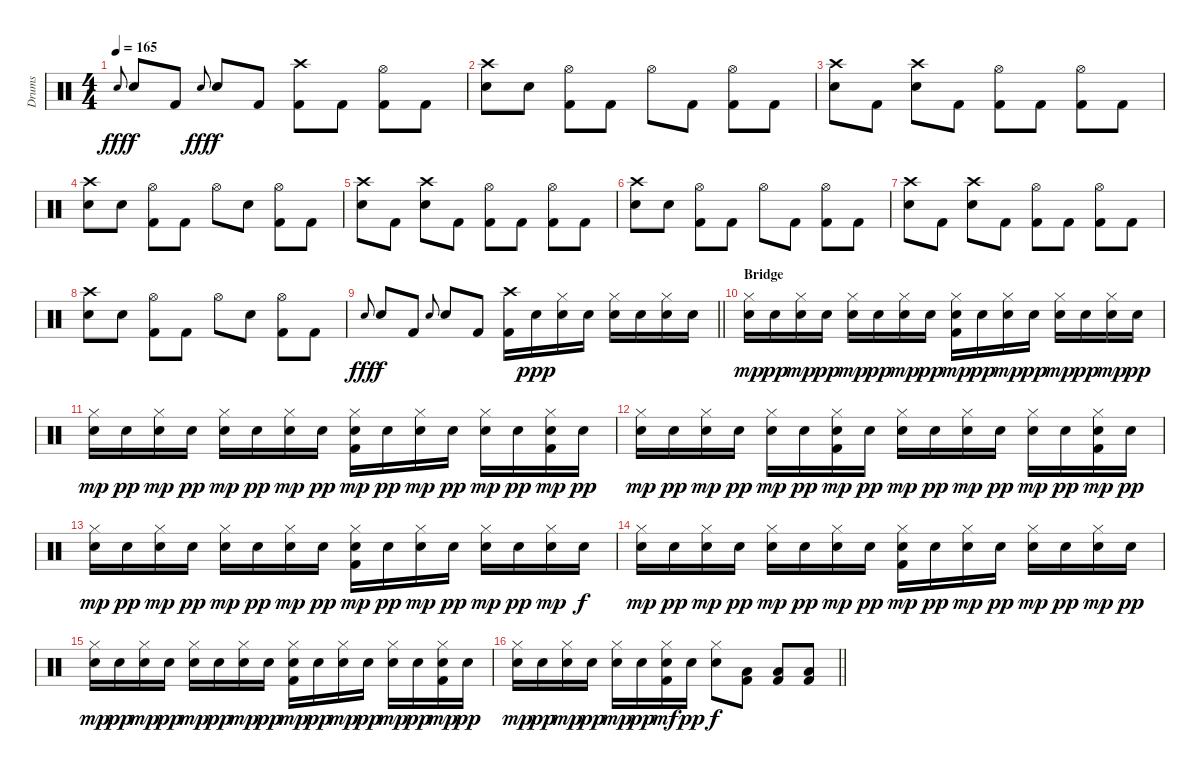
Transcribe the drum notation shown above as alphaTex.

\track ("Drums" "Drums") {instrument percussion}
\staff {score}
\articulation defaults
\ts (4 4)
\tempo 165
\clef neutral
\ks c "Electric Snare (hit)".8{gr onbeat dy fff} "Electric Snare (hit)".8{dy f} "Kick (hit) 2".8 "Electric Snare (hit)".8{gr onbeat dy fff} "Electric Snare (hit)".8{dy f} "Kick (hit) 2".8
("Crash high (hit)" "Kick (hit) 2").8 "Kick (hit) 2".8 ("Hi-Hat (open)" "Kick (hit) 2").8 "Kick (hit) 2".8 |
("Crash high (hit)" "Electric Snare (hit)").8 "Electric Snare (hit)".8 ("Hi-Hat (open)" "Kick (hit) 2").8 "Kick (hit) 2".8 "Hi-Hat (open)".8 "Kick (hit) 2".8 ("Hi-Hat (open)" "Kick (hit) 2").8 "Kick (hit) 2".8 |
("Crash high (hit)" "Electric Snare (hit)").8 "Kick (hit) 2".8 ("Crash high (hit)" "Electric Snare (hit)").8 "Kick (hit) 2".8 ("Hi-Hat (open)" "Kick (hit) 2").8 "Kick (hit) 2".8 ("Hi-Hat (open)" "Kick (hit) 2").8 "Kick (hit) 2".8 |
("Crash high (hit)" "Electric Snare (hit)").8 "Electric Snare (hit)".8 ("Hi-Hat (open)" "Kick (hit) 2").8 "Kick (hit) 2".8 "Hi-Hat (open)".8 "Electric Snare (hit)".8 ("Hi-Hat (open)" "Kick (hit) 2").8 "Kick (hit) 2".8 |
("Crash high (hit)" "Electric Snare (hit)").8 "Kick (hit) 2".8 ("Crash high (hit)" "Electric Snare (hit)").8 "Kick (hit) 2".8 ("Hi-Hat (open)" "Kick (hit) 2").8 "Kick (hit) 2".8 ("Hi-Hat (open)" "Kick (hit) 2").8 "Kick (hit) 2".8 |
("Crash high (hit)" "Electric Snare (hit)").8 "Electric Snare (hit)".8 ("Hi-Hat (open)" "Kick (hit) 2").8 "Kick (hit) 2".8 "Hi-Hat (open)".8 "Kick (hit) 2".8 ("Hi-Hat (open)" "Kick (hit) 2").8 "Kick (hit) 2".8 |
("Crash high (hit)" "Electric Snare (hit)").8 "Kick (hit) 2".8 ("Crash high (hit)" "Electric Snare (hit)").8 "Kick (hit) 2".8 ("Hi-Hat (open)" "Kick (hit) 2").8 "Kick (hit) 2".8 ("Hi-Hat (open)" "Kick (hit) 2").8 "Kick (hit) 2".8 |
("Crash high (hit)" "Electric Snare (hit)").8 "Electric Snare (hit)".8 ("Hi-Hat (open)" "Kick (hit) 2").8 "Kick (hit) 2".8 "Hi-Hat (open)".8 "Electric Snare (hit)".8 ("Hi-Hat (open)" "Kick (hit) 2").8 "Kick (hit) 2".8 |
\barLineRight lightlight "Electric Snare (hit)".8{gr onbeat dy fff} "Electric Snare (hit)".8{dy f} "Kick (hit) 2".8 "Electric Snare (hit)".8{gr onbeat} "Electric Snare (hit)".8 "Kick (hit) 2".8
("Crash high (hit)" "Kick (hit) 2").16 "Snare (hit) 2".16{dy ppp} ("Snare (hit) 2" "Hi-Hat (closed)").16 "Snare (hit) 2".16 ("Snare (hit) 2" "Hi-Hat (closed)").16 "Snare (hit) 2".16 ("Snare (hit) 2" "Hi-Hat (closed)").16 "Snare (hit) 2".16 |
\section ("" "Bridge")
("Electric Snare (hit)" "Hi-Hat (closed)").16{dy mp} "Snare (hit) 2".16{dy pp} ("Snare (hit) 2" "Hi-Hat (closed)").16{dy mp} "Snare (hit) 2".16{dy pp} ("Snare (hit) 2" "Hi-Hat (closed)").16{dy mp} "Snare (hit) 2".16{dy pp} ("Snare (hit) 2" "Hi-Hat (closed)").16{dy mp} "Snare (hit) 2".16{dy pp} ("Kick (hit) 2" "Snare (hit) 2" "Hi-Hat (closed)").16{dy mp} "Snare (hit) 2".16{dy pp} ("Snare (hit) 2" "Hi-Hat (closed)").16{dy mp} "Snare (hit) 2".16{dy pp} ("Snare (hit) 2" "Hi-Hat (closed)").16{dy mp} "Snare (hit) 2".16{dy pp} ("Snare (hit) 2" "Hi-Hat (closed)").16{dy mp} "Snare (hit) 2".16{dy pp} |
("Electric Snare (hit)" "Hi-Hat (closed)").16{dy mp} "Snare (hit) 2".16{dy pp} ("Snare (hit) 2" "Hi-Hat (closed)").16{dy mp} "Snare (hit) 2".16{dy pp} ("Electric Snare (hit)" "Hi-Hat (closed)").16{dy mp} "Snare (hit) 2".16{dy pp} ("Snare (hit) 2" "Hi-Hat (closed)").16{dy mp} "Snare (hit) 2".16{dy pp} ("Kick (hit) 2" "Snare (hit) 2" "Hi-Hat (closed)").16{dy mp} "Snare (hit) 2".16{dy pp} ("Snare (hit) 2" "Hi-Hat (closed)").16{dy mp} "Snare (hit) 2".16{dy pp} ("Snare (hit) 2" "Hi-Hat (closed)").16{dy mp} "Snare (hit) 2".16{dy pp} ("Kick (hit) 2" "Snare (hit) 2" "Hi-Hat (closed)").16{dy mp} "Snare (hit) 2".16{dy pp} |
("Electric Snare (hit)" "Hi-Hat (closed)").16{dy mp} "Snare (hit) 2".16{dy pp} ("Electric Snare (hit)" "Hi-Hat (closed)").16{dy mp} "Snare (hit) 2".16{dy pp} ("Snare (hit) 2" "Hi-Hat (closed)").16{dy mp} "Snare (hit) 2".16{dy pp} ("Kick (hit) 2" "Snare (hit) 2" "Hi-Hat (closed)").16{dy mp} "Snare (hit) 2".16{dy pp} ("Electric Snare (hit)" "Hi-Hat (closed)").16{dy mp} "Snare (hit) 2".16{dy pp} ("Electric Snare (hit)" "Hi-Hat (closed)").16{dy mp} "Snare (hit) 2".16{dy pp} ("Snare (hit) 2" "Hi-Hat (closed)").16{dy mp} "Snare (hit) 2".16{dy pp} ("Kick (hit) 2" "Snare (hit) 2" "Hi-Hat (closed)").16{dy mp} "Snare (hit) 2".16{dy pp} |
("Electric Snare (hit)" "Hi-Hat (closed)").16{dy mp} "Snare (hit) 2".16{dy pp} ("Snare (hit) 2" "Hi-Hat (closed)").16{dy mp} "Snare (hit) 2".16{dy pp} ("Electric Snare (hit)" "Hi-Hat (closed)").16{dy mp} "Snare (hit) 2".16{dy pp} ("Electric Snare (hit)" "Hi-Hat (closed)").16{dy mp} "Snare (hit) 2".16{dy pp} ("Kick (hit) 2" "Snare (hit) 2" "Hi-Hat (closed)").16{dy mp} "Snare (hit) 2".16{dy pp} ("Snare (hit) 2" "Hi-Hat (closed)").16{dy mp} "Snare (hit) 2".16{dy pp} ("Snare (hit) 2" "Hi-Hat (closed)").16{dy mp} "Snare (hit) 2".16{dy pp} ("Electric Snare (hit)" "Hi-Hat (closed)").16{dy mp} "Electric Snare (hit)".16{dy f} |
("Electric Snare (hit)" "Hi-Hat (closed)").16{dy mp} "Snare (hit) 2".16{dy pp} ("Electric Snare (hit)" "Hi-Hat (closed)").16{dy mp} "Snare (hit) 2".16{dy pp} ("Electric Snare (hit)" "Hi-Hat (closed)").16{dy mp} "Snare (hit) 2".16{dy pp} ("Snare (hit) 2" "Hi-Hat (closed)").16{dy mp} "Snare (hit) 2".16{dy pp} ("Kick (hit) 2" "Snare (hit) 2" "Hi-Hat (closed)").16{dy mp} "Snare (hit) 2".16{dy pp} ("Snare (hit) 2" "Hi-Hat (closed)").16{dy mp} "Snare (hit) 2".16{dy pp} ("Snare (hit) 2" "Hi-Hat (closed)").16{dy mp} "Snare (hit) 2".16{dy pp} ("Snare (hit) 2" "Hi-Hat (closed)").16{dy mp} "Snare (hit) 2".16{dy pp} |
("Electric Snare (hit)" "Hi-Hat (closed)").16{dy mp} "Snare (hit) 2".16{dy pp} ("Snare (hit) 2" "Hi-Hat (closed)").16{dy mp} "Snare (hit) 2".16{dy pp} ("Electric Snare (hit)" "Hi-Hat (closed)").16{dy mp} "Snare (hit) 2".16{dy pp} ("Snare (hit) 2" "Hi-Hat (closed)").16{dy mp} "Snare (hit) 2".16{dy pp} ("Kick (hit) 2" "Snare (hit) 2" "Hi-Hat (closed)").16{dy mp} "Snare (hit) 2".16{dy pp} ("Snare (hit) 2" "Hi-Hat (closed)").16{dy mp} "Snare (hit) 2".16{dy pp} ("Snare (hit) 2" "Hi-Hat (closed)").16{dy mp} "Snare (hit) 2".16{dy pp} ("Kick (hit) 2" "Snare (hit) 2" "Hi-Hat (closed)").16{dy mp} "Snare (hit) 2".16{dy pp} |
\barLineRight lightlight
("Electric Snare (hit)" "Hi-Hat (closed)").16{dy mp} "Snare (hit) 2".16{dy pp} ("Electric Snare (hit)" "Hi-Hat (closed)").16{dy mp} "Snare (hit) 2".16{dy pp} ("Snare (hit) 2" "Hi-Hat (closed)").16{dy mp} "Snare (hit) 2".16{dy pp} ("Kick (hit) 2" "Snare (hit) 2" "Hi-Hat (closed)").16{dy mf} "Snare (hit) 2".16{dy pp} ("Electric Snare (hit)" "Hi-Hat (closed)").8{dy f} ("Low Tom (hit)" "Kick (hit) 2").8 ("Low Tom (hit)" "Kick (hit) 2").8 ("Low Tom (hit)" "Kick (hit) 2").8
